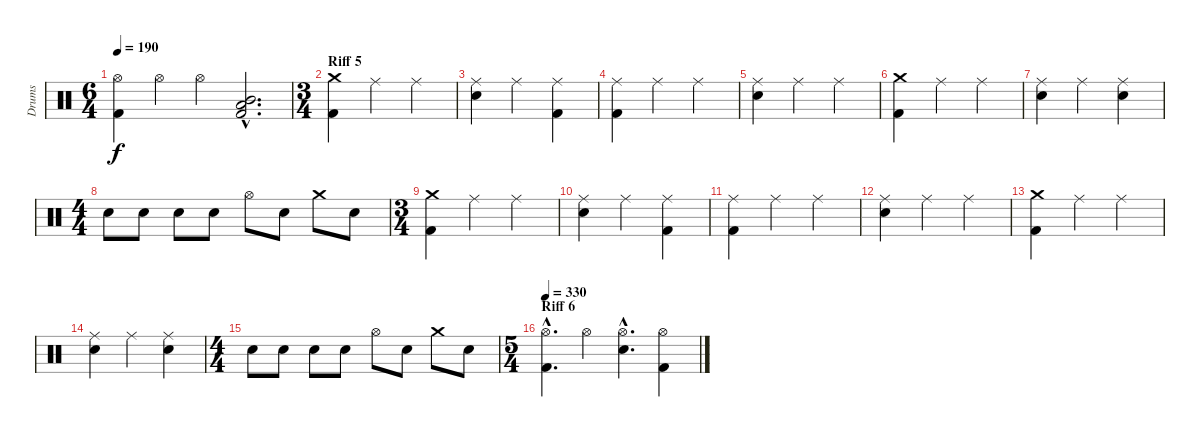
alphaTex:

\track ("Drums" "Drums") {instrument percussion}
\staff {score}
\articulation defaults
\ts (6 4)
\tempo 190
\clef neutral
\ks c
("Hi-Hat (open)" "Kick (hit) 2").4{dy f} "Hi-Hat (open)".4 "Hi-Hat (open)".4 ("Mid Tom (hit)"{hac} "Low Tom (hit)"{hac} "Kick (hit) 2"{hac}).2{d} |
\ts (3 4)
\section ("" "Riff 5")
("Crash medium (hit)" "Kick (hit) 2").4 "Ride (middle)".4 "Ride (middle)".4 |
("Ride (middle)" "Electric Snare (hit)").4 "Ride (middle)".4 ("Ride (middle)" "Kick (hit) 2").4 |
("Ride (middle)" "Kick (hit) 2").4 "Ride (middle)".4 "Ride (middle)".4 |
("Ride (middle)" "Electric Snare (hit)").4 "Ride (middle)".4 "Ride (middle)".4 |
("Crash medium (hit)" "Kick (hit) 2").4 "Ride (middle)".4 "Ride (middle)".4 |
("Ride (middle)" "Electric Snare (hit)").4 "Ride (middle)".4 ("Ride (middle)" "Electric Snare (hit)").4 |
\ts (4 4)
"Electric Snare (hit)".8 "Electric Snare (hit)".8 "Electric Snare (hit)".8 "Electric Snare (hit)".8 "Hi-Hat (open)".8 "Electric Snare (hit)".8 "Crash medium (hit)".8 "Electric Snare (hit)".8 |
\ts (3 4)
("Crash medium (hit)" "Kick (hit) 2").4 "Ride (middle)".4 "Ride (middle)".4 |
("Ride (middle)" "Electric Snare (hit)").4 "Ride (middle)".4 ("Ride (middle)" "Kick (hit) 2").4 |
("Ride (middle)" "Kick (hit) 2").4 "Ride (middle)".4 "Ride (middle)".4 |
("Ride (middle)" "Electric Snare (hit)").4 "Ride (middle)".4 "Ride (middle)".4 |
("Crash medium (hit)" "Kick (hit) 2").4 "Ride (middle)".4 "Ride (middle)".4 |
("Ride (middle)" "Electric Snare (hit)").4 "Ride (middle)".4 ("Ride (middle)" "Electric Snare (hit)").4 |
\ts (4 4)
"Electric Snare (hit)".8 "Electric Snare (hit)".8 "Electric Snare (hit)".8 "Electric Snare (hit)".8 "Hi-Hat (open)".8 "Electric Snare (hit)".8 "Crash medium (hit)".8 "Electric Snare (hit)".8 |
\ts (5 4)
\section ("" "Riff 6")
\tempo 400
\tempo 330
("Hi-Hat (open)"{hac} "Kick (hit) 2"{hac}).4{d} "Hi-Hat (open)".4 ("Hi-Hat (open)"{hac} "Electric Snare (hit)"{hac}).4{d} ("Hi-Hat (open)" "Kick (hit) 2").4
